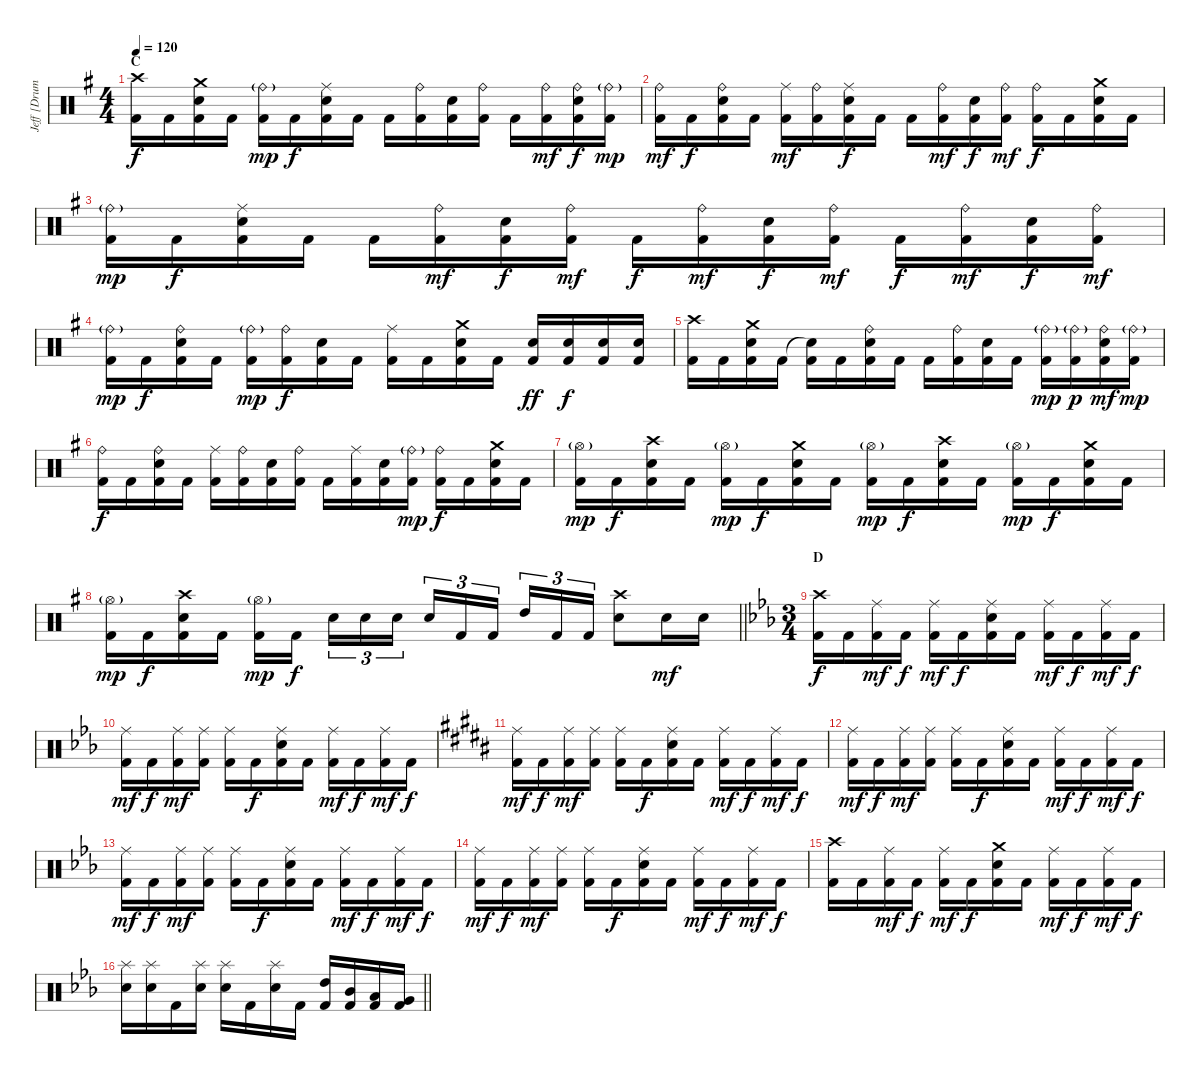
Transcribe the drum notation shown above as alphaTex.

\track ("Jeff [Drums]" "Jeff [Drum") {instrument percussion}
\staff {score}
\articulation defaults
\ts (4 4)
\section ("" "C")
\tempo 120
\clef neutral
\ks g
("Crash high (hit)" "Kick (hit) 2").16{dy f} "Kick (hit) 2".16 ("Crash medium (hit)" "Electric Snare (hit)" "Kick (hit) 2").16 "Kick (hit) 2".16 ("Ride (bell)"{g} "Kick (hit) 2").16{dy mp} "Kick (hit) 2".16{dy f} ("Ride (middle)" "Electric Snare (hit)" "Kick (hit) 2").16 "Kick (hit) 2".16 "Kick (hit) 2".16 ("Ride (bell)" "Kick (hit) 2").16 ("Electric Snare (hit)" "Kick (hit) 2").16 ("Ride (bell)" "Kick (hit) 2").16 "Kick (hit) 2".16 ("Ride (bell)" "Kick (hit) 2").16{dy mf} ("Ride (bell)" "Electric Snare (hit)" "Kick (hit) 2").16{dy f} ("Ride (bell)"{g} "Kick (hit) 2").16{dy mp} |
("Ride (bell)" "Kick (hit) 2").16{dy mf} "Kick (hit) 2".16{dy f} ("Ride (bell)" "Electric Snare (hit)" "Kick (hit) 2").16 "Kick (hit) 2".16 ("Ride (middle)" "Kick (hit) 2").16{dy mf} ("Ride (bell)" "Kick (hit) 2").16 ("Ride (middle)" "Electric Snare (hit)" "Kick (hit) 2").16{dy f} "Kick (hit) 2".16 "Kick (hit) 2".16 ("Ride (bell)" "Kick (hit) 2").16{dy mf} ("Electric Snare (hit)" "Kick (hit) 2").16{dy f} ("Ride (bell)" "Kick (hit) 2").16{dy mf} ("Ride (bell)" "Kick (hit) 2").16{dy f} "Kick (hit) 2".16 ("Crash medium (hit)" "Electric Snare (hit)" "Kick (hit) 2").16 "Kick (hit) 2".16 |
("Ride (bell)"{g} "Kick (hit) 2").16{dy mp} "Kick (hit) 2".16{dy f} ("Ride (middle)" "Electric Snare (hit)" "Kick (hit) 2").16 "Kick (hit) 2".16 "Kick (hit) 2".16 ("Ride (bell)" "Kick (hit) 2").16{dy mf} ("Electric Snare (hit)" "Kick (hit) 2").16{dy f} ("Ride (bell)" "Kick (hit) 2").16{dy mf} "Kick (hit) 2".16{dy f} ("Ride (bell)" "Kick (hit) 2").16{dy mf} ("Electric Snare (hit)" "Kick (hit) 2").16{dy f} ("Ride (bell)" "Kick (hit) 2").16{dy mf} "Kick (hit) 2".16{dy f} ("Ride (bell)" "Kick (hit) 2").16{dy mf} ("Electric Snare (hit)" "Kick (hit) 2").16{dy f} ("Ride (bell)" "Kick (hit) 2").16{dy mf} |
("Ride (bell)"{g} "Kick (hit) 2").16{dy mp} "Kick (hit) 2".16{dy f} ("Ride (bell)" "Electric Snare (hit)" "Kick (hit) 2").16 "Kick (hit) 2".16 ("Ride (bell)"{g} "Kick (hit) 2").16{dy mp} ("Ride (bell)" "Kick (hit) 2").16{dy f} ("Electric Snare (hit)" "Kick (hit) 2").16 "Kick (hit) 2".16 ("Ride (middle)" "Kick (hit) 2").16 "Kick (hit) 2".16 ("Crash medium (hit)" "Electric Snare (hit)" "Kick (hit) 2").16 "Kick (hit) 2".16 ("Electric Snare (hit)" "Kick (hit) 2").16{dy ff} ("Electric Snare (hit)" "Kick (hit) 2").16{dy f} ("Electric Snare (hit)" "Kick (hit) 2").16 ("Electric Snare (hit)" "Kick (hit) 2").16 |
("Crash high (hit)" "Kick (hit) 2").16 "Kick (hit) 2".16 ("Crash medium (hit)" "Electric Snare (hit)" "Kick (hit) 2").16 "Kick (hit) 2".16 ("Snare (hit)"{t} "Kick (hit) 2").16 "Kick (hit) 2".16 ("Ride (bell)" "Electric Snare (hit)" "Kick (hit) 2").16 "Kick (hit) 2".16 "Kick (hit) 2".16 ("Ride (bell)" "Kick (hit) 2").16 ("Electric Snare (hit)" "Kick (hit) 2").16 "Kick (hit) 2".16 ("Ride (bell)"{g} "Kick (hit) 2").16{dy mp} ("Ride (bell)"{g} "Kick (hit) 2").16{dy p} ("Ride (bell)" "Electric Snare (hit)" "Kick (hit) 2").16{dy mf} ("Ride (bell)"{g} "Kick (hit) 2").16{dy mp} |
("Ride (bell)" "Kick (hit) 2").16{dy f} "Kick (hit) 2".16 ("Ride (bell)" "Electric Snare (hit)" "Kick (hit) 2").16 "Kick (hit) 2".16 ("Ride (middle)" "Kick (hit) 2").16 ("Ride (bell)" "Kick (hit) 2").16 ("Electric Snare (hit)" "Kick (hit) 2").16 ("Ride (bell)" "Kick (hit) 2").16 "Kick (hit) 2".16 ("Ride (middle)" "Kick (hit) 2").16 ("Electric Snare (hit)" "Kick (hit) 2").16 ("Ride (bell)"{g} "Kick (hit) 2").16{dy mp} ("Ride (bell)" "Kick (hit) 2").16{dy f} "Kick (hit) 2".16 ("Crash medium (hit)" "Electric Snare (hit)" "Kick (hit) 2").16 "Kick (hit) 2".16 |
("Hi-Hat (open)"{g} "Kick (hit) 2").16{dy mp} "Kick (hit) 2".16{dy f} ("Crash high (hit)" "Electric Snare (hit)" "Kick (hit) 2").16 "Kick (hit) 2".16 ("Hi-Hat (open)"{g} "Kick (hit) 2").16{dy mp} "Kick (hit) 2".16{dy f} ("Crash medium (hit)" "Electric Snare (hit)" "Kick (hit) 2").16 "Kick (hit) 2".16 ("Hi-Hat (open)"{g} "Kick (hit) 2").16{dy mp} "Kick (hit) 2".16{dy f} ("Crash high (hit)" "Electric Snare (hit)" "Kick (hit) 2").16 "Kick (hit) 2".16 ("Hi-Hat (open)"{g} "Kick (hit) 2").16{dy mp} "Kick (hit) 2".16{dy f} ("Crash medium (hit)" "Electric Snare (hit)" "Kick (hit) 2").16 "Kick (hit) 2".16 |
\barLineRight lightlight
("Hi-Hat (open)"{g} "Kick (hit) 2").16{dy mp} "Kick (hit) 2".16{dy f} ("Crash high (hit)" "Electric Snare (hit)" "Kick (hit) 2").16 "Kick (hit) 2".16 ("Hi-Hat (open)"{g} "Kick (hit) 2").16{dy mp} "Kick (hit) 2".16{dy f beam splitsecondary} "Electric Snare (hit)".16{tu (3 2)} "Electric Snare (hit)".16{tu (3 2)} "Electric Snare (hit)".16{tu (3 2)} "Electric Snare (hit)".16{tu (3 2)} "Kick (hit) 2".16{tu (3 2)} "Kick (hit) 2".16{tu (3 2) beam splitsecondary} "High Tom (hit)".16{tu (3 2)} "Kick (hit) 2".16{tu (3 2)} "Kick (hit) 2".16{tu (3 2)} ("Crash high (hit)" "Electric Snare (hit)").8 "Electric Snare (hit)".16{dy mf} "Electric Snare (hit)".16 |
\ts (3 4)
\section ("" "D")
\ks eb
("Crash high (hit)" "Kick (hit) 2").16{dy f} "Kick (hit) 2".16 ("Ride (middle)" "Kick (hit) 2").16{dy mf} "Kick (hit) 2".16{dy f} ("Ride (middle)" "Kick (hit) 2").16{dy mf} "Kick (hit) 2".16{dy f} ("Ride (middle)" "Electric Snare (hit)" "Kick (hit) 2").16 "Kick (hit) 2".16 ("Ride (middle)" "Kick (hit) 2").16{dy mf} "Kick (hit) 2".16{dy f} ("Ride (middle)" "Kick (hit) 2").16{dy mf} "Kick (hit) 2".16{dy f} |
("Ride (middle)" "Kick (hit) 2").16{dy mf} "Kick (hit) 2".16{dy f} ("Ride (middle)" "Kick (hit) 2").16{dy mf} ("Ride (middle)" "Kick (hit) 2").16 ("Ride (middle)" "Kick (hit) 2").16 "Kick (hit) 2".16{dy f} ("Ride (middle)" "Electric Snare (hit)" "Kick (hit) 2").16 "Kick (hit) 2".16 ("Ride (middle)" "Kick (hit) 2").16{dy mf} "Kick (hit) 2".16{dy f} ("Ride (middle)" "Kick (hit) 2").16{dy mf} "Kick (hit) 2".16{dy f} |
\ks b
("Ride (middle)" "Kick (hit) 2").16{dy mf} "Kick (hit) 2".16{dy f} ("Ride (middle)" "Kick (hit) 2").16{dy mf} ("Ride (middle)" "Kick (hit) 2").16 ("Ride (middle)" "Kick (hit) 2").16 "Kick (hit) 2".16{dy f} ("Ride (middle)" "Electric Snare (hit)" "Kick (hit) 2").16 "Kick (hit) 2".16 ("Ride (middle)" "Kick (hit) 2").16{dy mf} "Kick (hit) 2".16{dy f} ("Ride (middle)" "Kick (hit) 2").16{dy mf} "Kick (hit) 2".16{dy f} |
("Ride (middle)" "Kick (hit) 2").16{dy mf} "Kick (hit) 2".16{dy f} ("Ride (middle)" "Kick (hit) 2").16{dy mf} ("Ride (middle)" "Kick (hit) 2").16 ("Ride (middle)" "Kick (hit) 2").16 "Kick (hit) 2".16{dy f} ("Ride (middle)" "Electric Snare (hit)" "Kick (hit) 2").16 "Kick (hit) 2".16 ("Ride (middle)" "Kick (hit) 2").16{dy mf} "Kick (hit) 2".16{dy f} ("Ride (middle)" "Kick (hit) 2").16{dy mf} "Kick (hit) 2".16{dy f} |
\ks eb
("Ride (middle)" "Kick (hit) 2").16{dy mf} "Kick (hit) 2".16{dy f} ("Ride (middle)" "Kick (hit) 2").16{dy mf} ("Ride (middle)" "Kick (hit) 2").16 ("Ride (middle)" "Kick (hit) 2").16 "Kick (hit) 2".16{dy f} ("Ride (middle)" "Electric Snare (hit)" "Kick (hit) 2").16 "Kick (hit) 2".16 ("Ride (middle)" "Kick (hit) 2").16{dy mf} "Kick (hit) 2".16{dy f} ("Ride (middle)" "Kick (hit) 2").16{dy mf} "Kick (hit) 2".16{dy f} |
("Ride (middle)" "Kick (hit) 2").16{dy mf} "Kick (hit) 2".16{dy f} ("Ride (middle)" "Kick (hit) 2").16{dy mf} ("Ride (middle)" "Kick (hit) 2").16 ("Ride (middle)" "Kick (hit) 2").16 "Kick (hit) 2".16{dy f} ("Ride (middle)" "Electric Snare (hit)" "Kick (hit) 2").16 "Kick (hit) 2".16 ("Ride (middle)" "Kick (hit) 2").16{dy mf} "Kick (hit) 2".16{dy f} ("Ride (middle)" "Kick (hit) 2").16{dy mf} "Kick (hit) 2".16{dy f} |
("Crash high (hit)" "Kick (hit) 2").16 "Kick (hit) 2".16 ("Ride (middle)" "Kick (hit) 2").16{dy mf} "Kick (hit) 2".16{dy f} ("Ride (middle)" "Kick (hit) 2").16{dy mf} "Kick (hit) 2".16{dy f} ("Crash medium (hit)" "Electric Snare (hit)" "Kick (hit) 2").16 "Kick (hit) 2".16 ("Ride (middle)" "Kick (hit) 2").16{dy mf} "Kick (hit) 2".16{dy f} ("Ride (middle)" "Kick (hit) 2").16{dy mf} "Kick (hit) 2".16{dy f} |
\barLineRight lightlight
("Splash (hit)" "Electric Snare (hit)").16 ("Splash (hit)" "Electric Snare (hit)").16 "Kick (hit) 2".16 ("Splash (hit)" "Electric Snare (hit)").16 ("Splash (hit)" "Electric Snare (hit)").16 "Kick (hit) 2".16 ("Splash (hit)" "Electric Snare (hit)").16 "Kick (hit) 2".16 ("High Tom (hit)" "Kick (hit) 2").16 ("Mid Tom (hit)" "Kick (hit) 2").16 ("Low Tom (hit)" "Kick (hit) 2").16 ("Very Low Tom (hit)" "Kick (hit) 2").16
